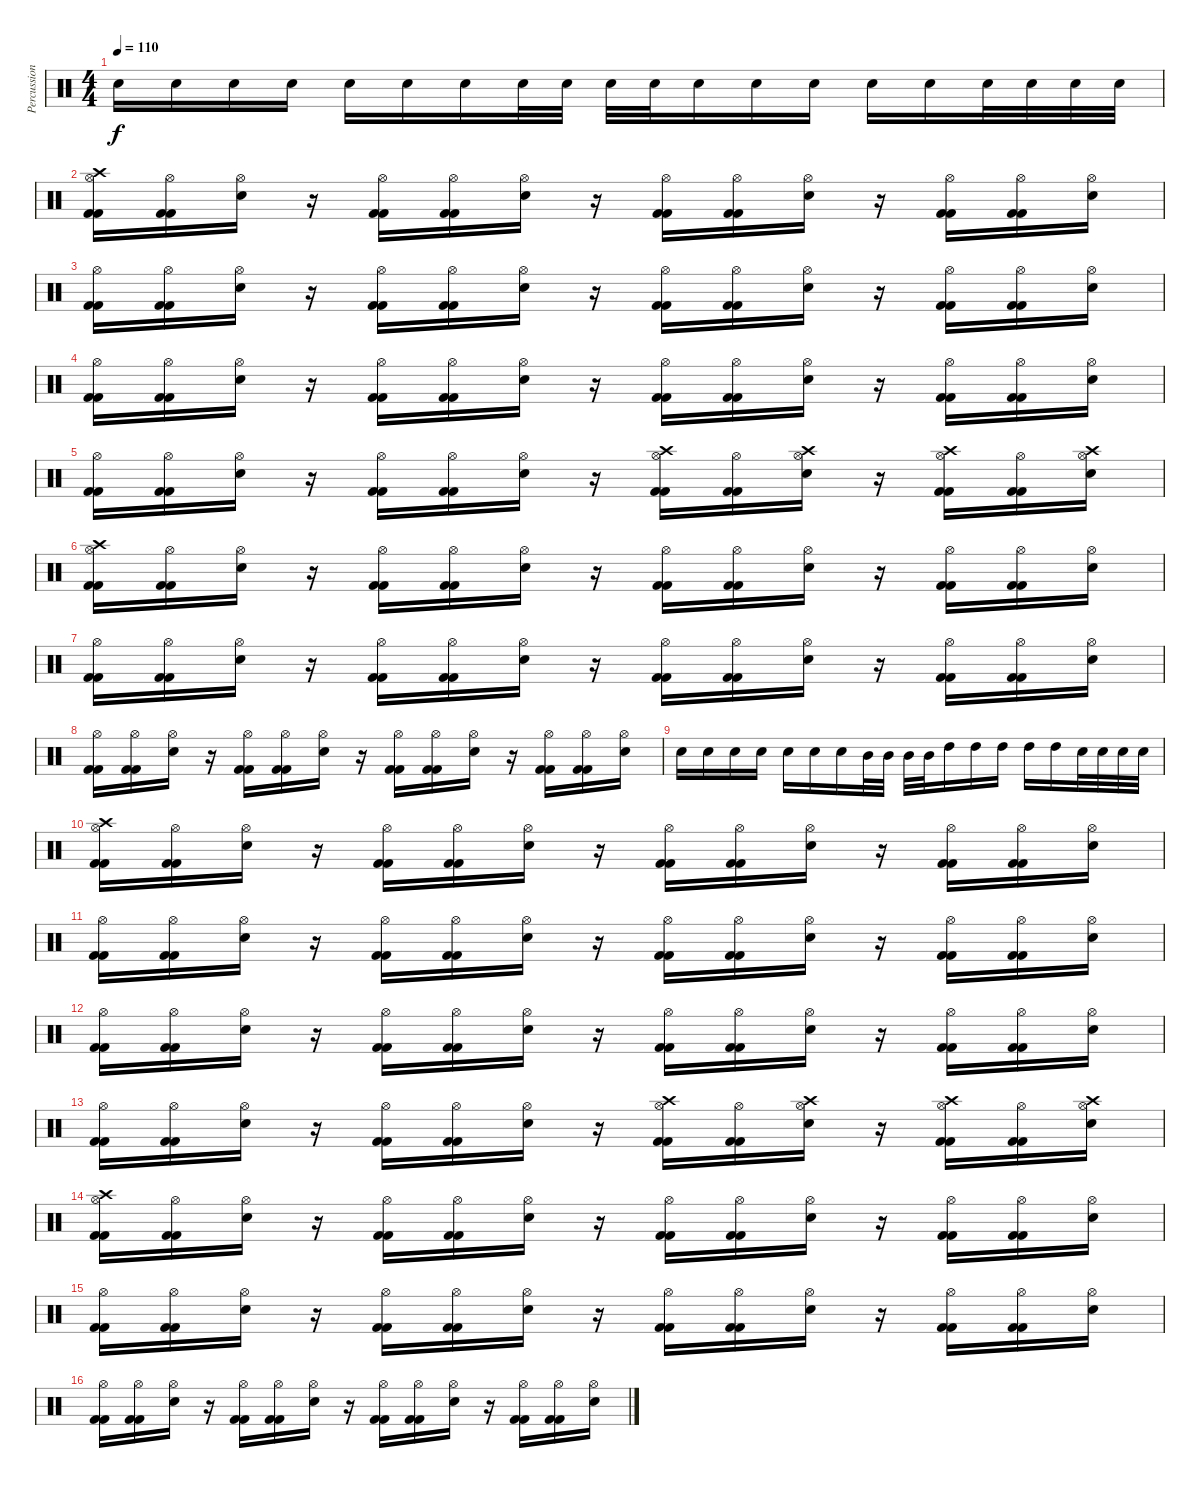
\track ("Percussions" "Percussion") {instrument percussion}
\staff {score}
\articulation defaults
\ts (4 4)
\tempo 110
\clef neutral
\ks c "Snare (hit) 2".16{dy f volume 16} "Snare (hit) 2".16 "Snare (hit) 2".16 "Snare (hit) 2".16 "Snare (hit) 2".16 "Snare (hit) 2".16 "Snare (hit) 2".16 "Snare (hit) 2".32 "Snare (hit) 2".32 "Snare (hit) 2".32 "Snare (hit) 2".32 "Snare (hit) 2".16 "Snare (hit) 2".16 "Snare (hit) 2".16 "Snare (hit) 2".16 "Snare (hit) 2".16 "Snare (hit) 2".32 "Snare (hit) 2".32 "Snare (hit) 2".32 "Snare (hit) 2".32
|
("Crash high (hit)" "Hi-Hat (open)" "Kick (hit) 2" "Kick (hit) 2").16 ("Hi-Hat (open)" "Kick (hit) 2" "Kick (hit) 2").16 ("Hi-Hat (open)" "Snare (hit) 2").16 r.16 ("Hi-Hat (open)" "Kick (hit) 2" "Kick (hit) 2").16 ("Hi-Hat (open)" "Kick (hit) 2" "Kick (hit) 2").16 ("Hi-Hat (open)" "Snare (hit) 2").16 r.16 ("Hi-Hat (open)" "Kick (hit) 2" "Kick (hit) 2").16 ("Hi-Hat (open)" "Kick (hit) 2" "Kick (hit) 2").16 ("Hi-Hat (open)" "Snare (hit) 2").16 r.16 ("Hi-Hat (open)" "Kick (hit) 2" "Kick (hit) 2").16 ("Hi-Hat (open)" "Kick (hit) 2" "Kick (hit) 2").16 ("Hi-Hat (open)" "Snare (hit) 2").16 |
("Hi-Hat (open)" "Kick (hit) 2" "Kick (hit) 2").16 ("Hi-Hat (open)" "Kick (hit) 2" "Kick (hit) 2").16 ("Hi-Hat (open)" "Snare (hit) 2").16 r.16 ("Hi-Hat (open)" "Kick (hit) 2" "Kick (hit) 2").16 ("Hi-Hat (open)" "Kick (hit) 2" "Kick (hit) 2").16 ("Hi-Hat (open)" "Snare (hit) 2").16 r.16 ("Hi-Hat (open)" "Kick (hit) 2" "Kick (hit) 2").16 ("Hi-Hat (open)" "Kick (hit) 2" "Kick (hit) 2").16 ("Hi-Hat (open)" "Snare (hit) 2").16 r.16 ("Hi-Hat (open)" "Kick (hit) 2" "Kick (hit) 2").16 ("Hi-Hat (open)" "Kick (hit) 2" "Kick (hit) 2").16 ("Hi-Hat (open)" "Snare (hit) 2").16 |
("Hi-Hat (open)" "Kick (hit) 2" "Kick (hit) 2").16 ("Hi-Hat (open)" "Kick (hit) 2" "Kick (hit) 2").16 ("Hi-Hat (open)" "Snare (hit) 2").16 r.16 ("Hi-Hat (open)" "Kick (hit) 2" "Kick (hit) 2").16 ("Hi-Hat (open)" "Kick (hit) 2" "Kick (hit) 2").16 ("Hi-Hat (open)" "Snare (hit) 2").16 r.16 ("Hi-Hat (open)" "Kick (hit) 2" "Kick (hit) 2").16 ("Hi-Hat (open)" "Kick (hit) 2" "Kick (hit) 2").16 ("Hi-Hat (open)" "Snare (hit) 2").16 r.16 ("Hi-Hat (open)" "Kick (hit) 2" "Kick (hit) 2").16 ("Hi-Hat (open)" "Kick (hit) 2" "Kick (hit) 2").16 ("Hi-Hat (open)" "Snare (hit) 2").16 |
("Hi-Hat (open)" "Kick (hit) 2" "Kick (hit) 2").16 ("Hi-Hat (open)" "Kick (hit) 2" "Kick (hit) 2").16 ("Hi-Hat (open)" "Snare (hit) 2").16 r.16 ("Hi-Hat (open)" "Kick (hit) 2" "Kick (hit) 2").16 ("Hi-Hat (open)" "Kick (hit) 2" "Kick (hit) 2").16 ("Hi-Hat (open)" "Snare (hit) 2").16 r.16 ("Crash high (hit)" "Hi-Hat (open)" "Kick (hit) 2" "Kick (hit) 2").16 ("Hi-Hat (open)" "Kick (hit) 2" "Kick (hit) 2").16 ("Crash high (hit)" "Hi-Hat (open)" "Snare (hit) 2").16 r.16 ("Crash high (hit)" "Hi-Hat (open)" "Kick (hit) 2" "Kick (hit) 2").16 ("Hi-Hat (open)" "Kick (hit) 2" "Kick (hit) 2").16 ("Crash high (hit)" "Hi-Hat (open)" "Snare (hit) 2").16 |
("Crash high (hit)" "Hi-Hat (open)" "Kick (hit) 2" "Kick (hit) 2").16 ("Hi-Hat (open)" "Kick (hit) 2" "Kick (hit) 2").16 ("Hi-Hat (open)" "Snare (hit) 2").16 r.16 ("Hi-Hat (open)" "Kick (hit) 2" "Kick (hit) 2").16 ("Hi-Hat (open)" "Kick (hit) 2" "Kick (hit) 2").16 ("Hi-Hat (open)" "Snare (hit) 2").16 r.16 ("Hi-Hat (open)" "Kick (hit) 2" "Kick (hit) 2").16 ("Hi-Hat (open)" "Kick (hit) 2" "Kick (hit) 2").16 ("Hi-Hat (open)" "Snare (hit) 2").16 r.16 ("Hi-Hat (open)" "Kick (hit) 2" "Kick (hit) 2").16 ("Hi-Hat (open)" "Kick (hit) 2" "Kick (hit) 2").16 ("Hi-Hat (open)" "Snare (hit) 2").16 |
("Hi-Hat (open)" "Kick (hit) 2" "Kick (hit) 2").16 ("Hi-Hat (open)" "Kick (hit) 2" "Kick (hit) 2").16 ("Hi-Hat (open)" "Snare (hit) 2").16 r.16 ("Hi-Hat (open)" "Kick (hit) 2" "Kick (hit) 2").16 ("Hi-Hat (open)" "Kick (hit) 2" "Kick (hit) 2").16 ("Hi-Hat (open)" "Snare (hit) 2").16 r.16 ("Hi-Hat (open)" "Kick (hit) 2" "Kick (hit) 2").16 ("Hi-Hat (open)" "Kick (hit) 2" "Kick (hit) 2").16 ("Hi-Hat (open)" "Snare (hit) 2").16 r.16 ("Hi-Hat (open)" "Kick (hit) 2" "Kick (hit) 2").16 ("Hi-Hat (open)" "Kick (hit) 2" "Kick (hit) 2").16 ("Hi-Hat (open)" "Snare (hit) 2").16 |
("Hi-Hat (open)" "Kick (hit) 2" "Kick (hit) 2").16 ("Hi-Hat (open)" "Kick (hit) 2" "Kick (hit) 2").16 ("Hi-Hat (open)" "Snare (hit) 2").16 r.16 ("Hi-Hat (open)" "Kick (hit) 2" "Kick (hit) 2").16 ("Hi-Hat (open)" "Kick (hit) 2" "Kick (hit) 2").16 ("Hi-Hat (open)" "Snare (hit) 2").16 r.16 ("Hi-Hat (open)" "Kick (hit) 2" "Kick (hit) 2").16 ("Hi-Hat (open)" "Kick (hit) 2" "Kick (hit) 2").16 ("Hi-Hat (open)" "Snare (hit) 2").16 r.16 ("Hi-Hat (open)" "Kick (hit) 2" "Kick (hit) 2").16 ("Hi-Hat (open)" "Kick (hit) 2" "Kick (hit) 2").16 ("Hi-Hat (open)" "Snare (hit) 2").16 |
"Snare (hit) 2".16{volume 16} "Snare (hit) 2".16 "Snare (hit) 2".16 "Snare (hit) 2".16 "Snare (hit) 2".16 "Snare (hit) 2".16 "Snare (hit) 2".16 "Mid Tom (hit)".32 "Mid Tom (hit)".32 "Mid Tom (hit)".32 "Mid Tom (hit)".32 "High Tom (hit)".16 "High Tom (hit)".16 "High Tom (hit)".16 "High Tom (hit)".16 "High Tom (hit)".16 "Snare (hit) 2".32 "Snare (hit) 2".32 "Snare (hit) 2".32 "Snare (hit) 2".32 |
("Crash high (hit)" "Hi-Hat (open)" "Kick (hit) 2" "Kick (hit) 2").16 ("Hi-Hat (open)" "Kick (hit) 2" "Kick (hit) 2").16 ("Hi-Hat (open)" "Snare (hit) 2").16 r.16 ("Hi-Hat (open)" "Kick (hit) 2" "Kick (hit) 2").16 ("Hi-Hat (open)" "Kick (hit) 2" "Kick (hit) 2").16 ("Hi-Hat (open)" "Snare (hit) 2").16 r.16 ("Hi-Hat (open)" "Kick (hit) 2" "Kick (hit) 2").16 ("Hi-Hat (open)" "Kick (hit) 2" "Kick (hit) 2").16 ("Hi-Hat (open)" "Snare (hit) 2").16 r.16 ("Hi-Hat (open)" "Kick (hit) 2" "Kick (hit) 2").16 ("Hi-Hat (open)" "Kick (hit) 2" "Kick (hit) 2").16 ("Hi-Hat (open)" "Snare (hit) 2").16 |
("Hi-Hat (open)" "Kick (hit) 2" "Kick (hit) 2").16 ("Hi-Hat (open)" "Kick (hit) 2" "Kick (hit) 2").16 ("Hi-Hat (open)" "Snare (hit) 2").16 r.16 ("Hi-Hat (open)" "Kick (hit) 2" "Kick (hit) 2").16 ("Hi-Hat (open)" "Kick (hit) 2" "Kick (hit) 2").16 ("Hi-Hat (open)" "Snare (hit) 2").16 r.16 ("Hi-Hat (open)" "Kick (hit) 2" "Kick (hit) 2").16 ("Hi-Hat (open)" "Kick (hit) 2" "Kick (hit) 2").16 ("Hi-Hat (open)" "Snare (hit) 2").16 r.16 ("Hi-Hat (open)" "Kick (hit) 2" "Kick (hit) 2").16 ("Hi-Hat (open)" "Kick (hit) 2" "Kick (hit) 2").16 ("Hi-Hat (open)" "Snare (hit) 2").16 |
("Hi-Hat (open)" "Kick (hit) 2" "Kick (hit) 2").16 ("Hi-Hat (open)" "Kick (hit) 2" "Kick (hit) 2").16 ("Hi-Hat (open)" "Snare (hit) 2").16 r.16 ("Hi-Hat (open)" "Kick (hit) 2" "Kick (hit) 2").16 ("Hi-Hat (open)" "Kick (hit) 2" "Kick (hit) 2").16 ("Hi-Hat (open)" "Snare (hit) 2").16 r.16 ("Hi-Hat (open)" "Kick (hit) 2" "Kick (hit) 2").16 ("Hi-Hat (open)" "Kick (hit) 2" "Kick (hit) 2").16 ("Hi-Hat (open)" "Snare (hit) 2").16 r.16 ("Hi-Hat (open)" "Kick (hit) 2" "Kick (hit) 2").16 ("Hi-Hat (open)" "Kick (hit) 2" "Kick (hit) 2").16 ("Hi-Hat (open)" "Snare (hit) 2").16 |
("Hi-Hat (open)" "Kick (hit) 2" "Kick (hit) 2").16 ("Hi-Hat (open)" "Kick (hit) 2" "Kick (hit) 2").16 ("Hi-Hat (open)" "Snare (hit) 2").16 r.16 ("Hi-Hat (open)" "Kick (hit) 2" "Kick (hit) 2").16 ("Hi-Hat (open)" "Kick (hit) 2" "Kick (hit) 2").16 ("Hi-Hat (open)" "Snare (hit) 2").16 r.16 ("Crash high (hit)" "Hi-Hat (open)" "Kick (hit) 2" "Kick (hit) 2").16 ("Hi-Hat (open)" "Kick (hit) 2" "Kick (hit) 2").16 ("Crash high (hit)" "Hi-Hat (open)" "Snare (hit) 2").16 r.16 ("Crash high (hit)" "Hi-Hat (open)" "Kick (hit) 2" "Kick (hit) 2").16 ("Hi-Hat (open)" "Kick (hit) 2" "Kick (hit) 2").16 ("Crash high (hit)" "Hi-Hat (open)" "Snare (hit) 2").16 |
("Crash high (hit)" "Hi-Hat (open)" "Kick (hit) 2" "Kick (hit) 2").16 ("Hi-Hat (open)" "Kick (hit) 2" "Kick (hit) 2").16 ("Hi-Hat (open)" "Snare (hit) 2").16 r.16 ("Hi-Hat (open)" "Kick (hit) 2" "Kick (hit) 2").16 ("Hi-Hat (open)" "Kick (hit) 2" "Kick (hit) 2").16 ("Hi-Hat (open)" "Snare (hit) 2").16 r.16 ("Hi-Hat (open)" "Kick (hit) 2" "Kick (hit) 2").16 ("Hi-Hat (open)" "Kick (hit) 2" "Kick (hit) 2").16 ("Hi-Hat (open)" "Snare (hit) 2").16 r.16 ("Hi-Hat (open)" "Kick (hit) 2" "Kick (hit) 2").16 ("Hi-Hat (open)" "Kick (hit) 2" "Kick (hit) 2").16 ("Hi-Hat (open)" "Snare (hit) 2").16 |
("Hi-Hat (open)" "Kick (hit) 2" "Kick (hit) 2").16 ("Hi-Hat (open)" "Kick (hit) 2" "Kick (hit) 2").16 ("Hi-Hat (open)" "Snare (hit) 2").16 r.16 ("Hi-Hat (open)" "Kick (hit) 2" "Kick (hit) 2").16 ("Hi-Hat (open)" "Kick (hit) 2" "Kick (hit) 2").16 ("Hi-Hat (open)" "Snare (hit) 2").16 r.16 ("Hi-Hat (open)" "Kick (hit) 2" "Kick (hit) 2").16 ("Hi-Hat (open)" "Kick (hit) 2" "Kick (hit) 2").16 ("Hi-Hat (open)" "Snare (hit) 2").16 r.16 ("Hi-Hat (open)" "Kick (hit) 2" "Kick (hit) 2").16 ("Hi-Hat (open)" "Kick (hit) 2" "Kick (hit) 2").16 ("Hi-Hat (open)" "Snare (hit) 2").16 |
("Hi-Hat (open)" "Kick (hit) 2" "Kick (hit) 2").16 ("Hi-Hat (open)" "Kick (hit) 2" "Kick (hit) 2").16 ("Hi-Hat (open)" "Snare (hit) 2").16 r.16 ("Hi-Hat (open)" "Kick (hit) 2" "Kick (hit) 2").16 ("Hi-Hat (open)" "Kick (hit) 2" "Kick (hit) 2").16 ("Hi-Hat (open)" "Snare (hit) 2").16 r.16 ("Hi-Hat (open)" "Kick (hit) 2" "Kick (hit) 2").16 ("Hi-Hat (open)" "Kick (hit) 2" "Kick (hit) 2").16 ("Hi-Hat (open)" "Snare (hit) 2").16 r.16 ("Hi-Hat (open)" "Kick (hit) 2" "Kick (hit) 2").16 ("Hi-Hat (open)" "Kick (hit) 2" "Kick (hit) 2").16 ("Hi-Hat (open)" "Snare (hit) 2").16
